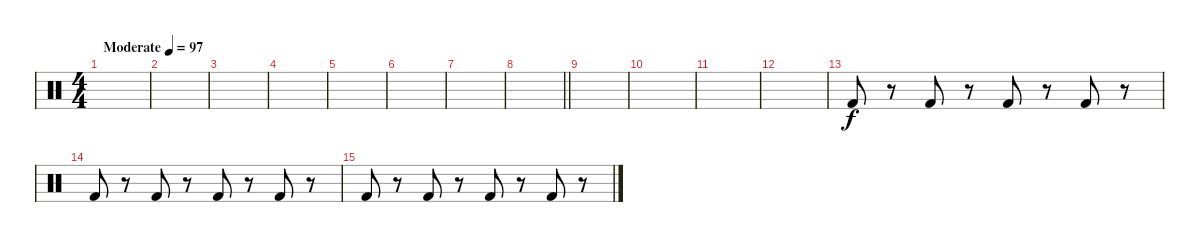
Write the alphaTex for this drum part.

\track "" {instrument percussion}
\staff {score}
\articulation defaults
\ts (4 4)
\section ("" "")
\tempo (97 "Moderate")
\clef neutral
\ks c
|
|
|
|
|
|
|
\barLineRight lightlight
|
\section ("" "")
|
|
|
|
"Kick (hit) 2".8 r.8 "Kick (hit) 2".8 r.8 "Kick (hit) 2".8 r.8 "Kick (hit) 2".8 r.8 |
"Kick (hit) 2".8 r.8 "Kick (hit) 2".8 r.8 "Kick (hit) 2".8 r.8 "Kick (hit) 2".8 r.8 |
"Kick (hit) 2".8 r.8 "Kick (hit) 2".8 r.8 "Kick (hit) 2".8 r.8 "Kick (hit) 2".8 r.8
